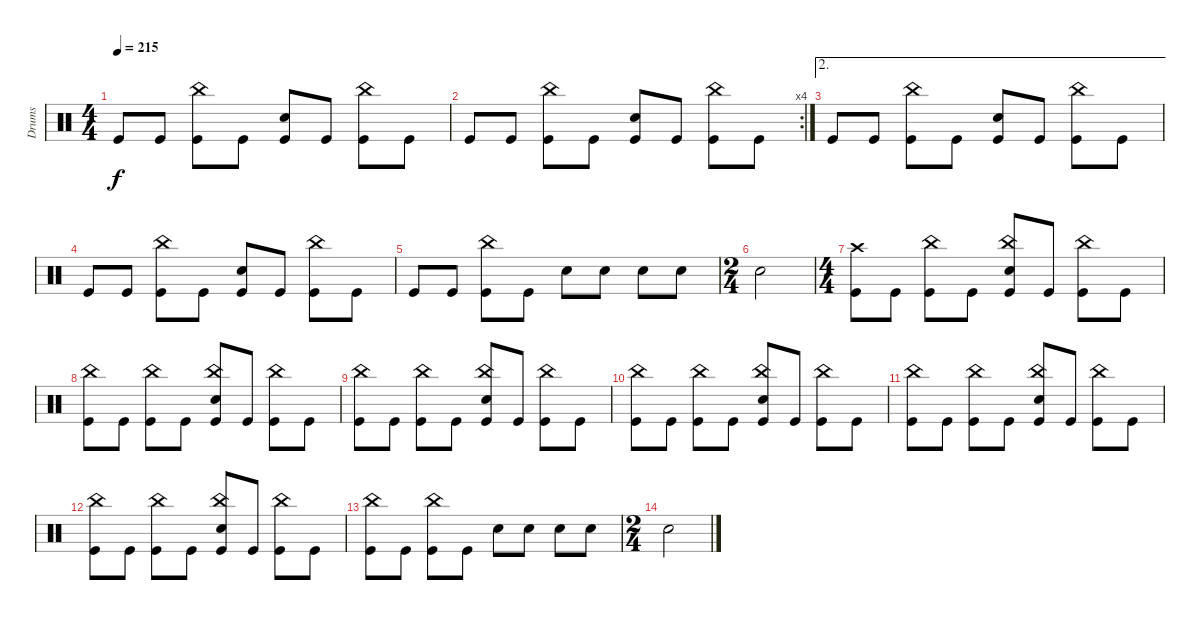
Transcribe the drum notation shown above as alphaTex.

\track ("Drums" "Drums") {instrument percussion}
\staff {score}
\articulation defaults
\ts (4 4)
\tempo 215
\clef neutral
\ks c "Kick (hit)".8{dy f} "Kick (hit)".8
("China (hit)" "Kick (hit)").8 "Kick (hit)".8 ("Electric Snare (hit)" "Kick (hit)").8 "Kick (hit)".8 ("China (hit)" "Kick (hit)").8 "Kick (hit)".8 |
\rc 4 "Kick (hit)".8 "Kick (hit)".8
("China (hit)" "Kick (hit)").8 "Kick (hit)".8 ("Electric Snare (hit)" "Kick (hit)").8 "Kick (hit)".8 ("China (hit)" "Kick (hit)").8 "Kick (hit)".8 |
\ae 2 "Kick (hit)".8 "Kick (hit)".8
("China (hit)" "Kick (hit)").8 "Kick (hit)".8 ("Electric Snare (hit)" "Kick (hit)").8 "Kick (hit)".8 ("China (hit)" "Kick (hit)").8 "Kick (hit)".8 |
"Kick (hit)".8 "Kick (hit)".8 ("China (hit)" "Kick (hit)").8 "Kick (hit)".8 ("Electric Snare (hit)" "Kick (hit)").8 "Kick (hit)".8 ("China (hit)" "Kick (hit)").8 "Kick (hit)".8 |
"Kick (hit)".8 "Kick (hit)".8 ("China (hit)" "Kick (hit)").8 "Kick (hit)".8 "Electric Snare (hit)".8 "Electric Snare (hit)".8 "Electric Snare (hit)".8 "Electric Snare (hit)".8 |
\ts (2 4)
"Electric Snare (hit)".2 |
\ts (4 4)
("Crash high (hit)" "Kick (hit)").8 "Kick (hit)".8 ("China (hit)" "Kick (hit)").8 "Kick (hit)".8 ("China (hit)" "Electric Snare (hit)" "Kick (hit)").8 "Kick (hit)".8 ("China (hit)" "Kick (hit)").8 "Kick (hit)".8 |
("China (hit)" "Kick (hit)").8 "Kick (hit)".8 ("China (hit)" "Kick (hit)").8 "Kick (hit)".8 ("China (hit)" "Electric Snare (hit)" "Kick (hit)").8 "Kick (hit)".8 ("China (hit)" "Kick (hit)").8 "Kick (hit)".8 |
("China (hit)" "Kick (hit)").8 "Kick (hit)".8 ("China (hit)" "Kick (hit)").8 "Kick (hit)".8 ("China (hit)" "Electric Snare (hit)" "Kick (hit)").8 "Kick (hit)".8 ("China (hit)" "Kick (hit)").8 "Kick (hit)".8 |
("China (hit)" "Kick (hit)").8 "Kick (hit)".8 ("China (hit)" "Kick (hit)").8 "Kick (hit)".8 ("China (hit)" "Electric Snare (hit)" "Kick (hit)").8 "Kick (hit)".8 ("China (hit)" "Kick (hit)").8 "Kick (hit)".8 |
("China (hit)" "Kick (hit)").8 "Kick (hit)".8 ("China (hit)" "Kick (hit)").8 "Kick (hit)".8 ("China (hit)" "Electric Snare (hit)" "Kick (hit)").8 "Kick (hit)".8 ("China (hit)" "Kick (hit)").8 "Kick (hit)".8 |
("China (hit)" "Kick (hit)").8 "Kick (hit)".8 ("China (hit)" "Kick (hit)").8 "Kick (hit)".8 ("China (hit)" "Electric Snare (hit)" "Kick (hit)").8 "Kick (hit)".8 ("China (hit)" "Kick (hit)").8 "Kick (hit)".8 |
("China (hit)" "Kick (hit)").8 "Kick (hit)".8 ("China (hit)" "Kick (hit)").8 "Kick (hit)".8 "Electric Snare (hit)".8 "Electric Snare (hit)".8 "Electric Snare (hit)".8 "Electric Snare (hit)".8 |
\ts (2 4)
"Electric Snare (hit)".2
